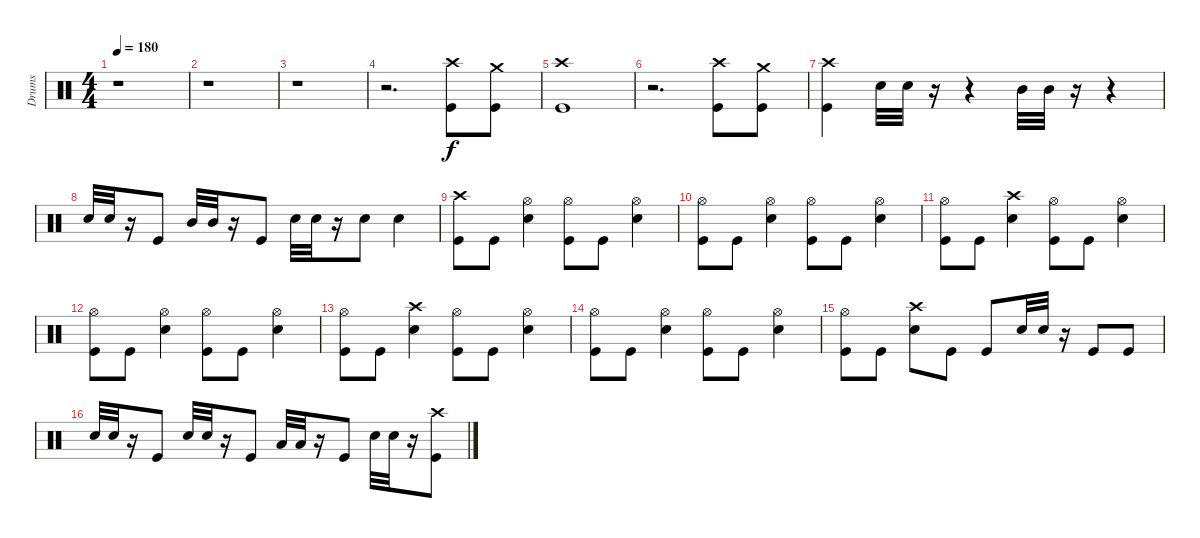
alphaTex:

\track ("Drums" "Drums") {instrument percussion}
\staff {score}
\articulation defaults
\ts (4 4)
\tempo 180
\clef neutral
\ks c
r.1{dy f} |
r.1 |
r.1 |
r.2{d} ("Crash high (hit)" "Kick (hit)").8 ("Crash medium (hit)" "Kick (hit)").8 |
("Crash high (hit)" "Kick (hit)").1 |
r.2{d} ("Crash high (hit)" "Kick (hit)").8 ("Crash medium (hit)" "Kick (hit)").8 |
("Crash high (hit)" "Kick (hit)").4 "Snare (hit) 2".32 "Snare (hit) 2".32 r.16 r.4 "Mid Tom (hit)".32 "Mid Tom (hit)".32 r.16 r.4 |
"Snare (hit) 2".32 "Snare (hit) 2".32 r.16 "Kick (hit)".8 "Mid Tom (hit)".32 "Mid Tom (hit)".32 r.16 "Kick (hit)".8 "Snare (hit) 2".32 "Snare (hit) 2".32 r.16 "Snare (hit) 2".8 "Snare (hit) 2".4 |
("Crash high (hit)" "Kick (hit)").8 "Kick (hit)".8 ("Hi-Hat (open)" "Snare (hit) 2").4 ("Hi-Hat (open)" "Kick (hit)").8 "Kick (hit)".8 ("Hi-Hat (open)" "Snare (hit) 2").4 |
("Hi-Hat (open)" "Kick (hit)").8 "Kick (hit)".8 ("Hi-Hat (open)" "Snare (hit) 2").4 ("Hi-Hat (open)" "Kick (hit)").8 "Kick (hit)".8 ("Hi-Hat (open)" "Snare (hit) 2").4 |
("Hi-Hat (open)" "Kick (hit)").8 "Kick (hit)".8 ("Crash high (hit)" "Snare (hit) 2").4 ("Hi-Hat (open)" "Kick (hit)").8 "Kick (hit)".8 ("Hi-Hat (open)" "Snare (hit) 2").4 |
("Hi-Hat (open)" "Kick (hit)").8 "Kick (hit)".8 ("Hi-Hat (open)" "Snare (hit) 2").4 ("Hi-Hat (open)" "Kick (hit)").8 "Kick (hit)".8 ("Hi-Hat (open)" "Snare (hit) 2").4 |
("Hi-Hat (open)" "Kick (hit)").8 "Kick (hit)".8 ("Crash high (hit)" "Snare (hit) 2").4 ("Hi-Hat (open)" "Kick (hit)").8 "Kick (hit)".8 ("Hi-Hat (open)" "Snare (hit) 2").4 |
("Hi-Hat (open)" "Kick (hit)").8 "Kick (hit)".8 ("Hi-Hat (open)" "Snare (hit) 2").4 ("Hi-Hat (open)" "Kick (hit)").8 "Kick (hit)".8 ("Hi-Hat (open)" "Snare (hit) 2").4 |
("Hi-Hat (open)" "Kick (hit)").8 "Kick (hit)".8 ("Crash high (hit)" "Snare (hit) 2").8 "Kick (hit)".8 "Kick (hit)".8 "Snare (hit) 2".32 "Snare (hit) 2".32 r.16 "Kick (hit)".8 "Kick (hit)".8 |
"Snare (hit) 2".32 "Snare (hit) 2".32 r.16 "Kick (hit)".8 "Snare (hit) 2".32 "Snare (hit) 2".32 r.16 "Kick (hit)".8 "Low Tom (hit)".32 "Low Tom (hit)".32 r.16 "Kick (hit)".8 "Snare (hit) 2".32 "Snare (hit) 2".32 r.16 ("Crash high (hit)" "Kick (hit)").8
